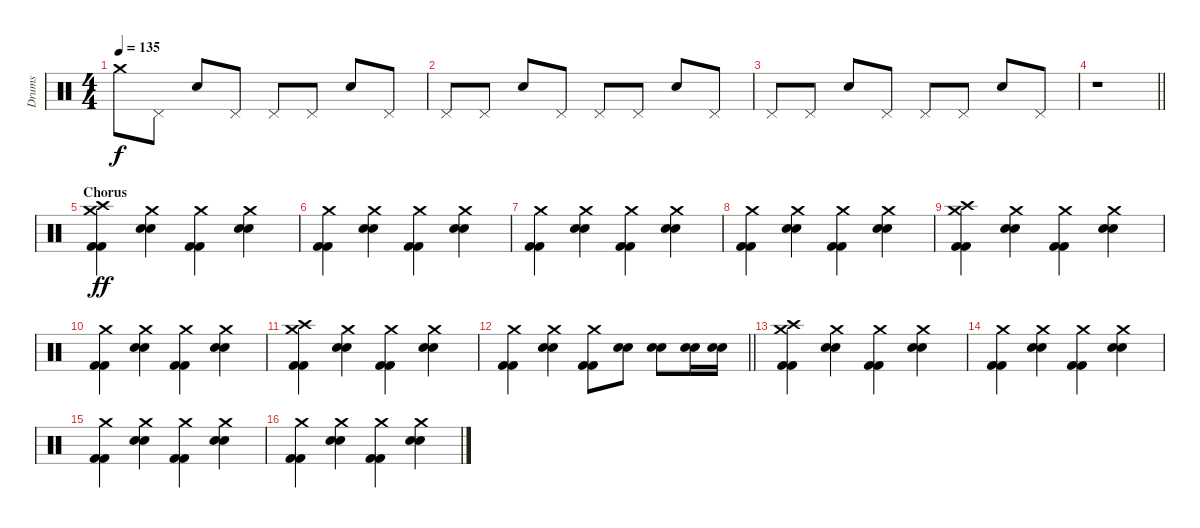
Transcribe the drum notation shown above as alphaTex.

\track ("Drums" "Drums") {instrument percussion}
\staff {score}
\articulation defaults
\ts (4 4)
\tempo 135
\clef neutral
\ks c "Crash medium (hit)".8{dy f} "Pedal Hi-Hat (hit)".8 "Hand Clap (hit)".8 "Pedal Hi-Hat (hit)".8 "Pedal Hi-Hat (hit)".8 "Pedal Hi-Hat (hit)".8 "Hand Clap (hit)".8 "Pedal Hi-Hat (hit)".8
|
"Pedal Hi-Hat (hit)".8 "Pedal Hi-Hat (hit)".8 "Hand Clap (hit)".8 "Pedal Hi-Hat (hit)".8 "Pedal Hi-Hat (hit)".8 "Pedal Hi-Hat (hit)".8 "Hand Clap (hit)".8 "Pedal Hi-Hat (hit)".8 |
"Pedal Hi-Hat (hit)".8 "Pedal Hi-Hat (hit)".8 "Hand Clap (hit)".8 "Pedal Hi-Hat (hit)".8 "Pedal Hi-Hat (hit)".8 "Pedal Hi-Hat (hit)".8 "Hand Clap (hit)".8 "Pedal Hi-Hat (hit)".8 |
\barLineRight lightlight
r.1 |
\section ("" "Chorus")
("Crash high (hit)" "Crash medium (hit)" "Kick (hit) 2" "Kick (hit) 2").4{dy ff} ("Crash medium (hit)" "Electric Snare (hit)" "Electric Snare (hit)").4 ("Crash medium (hit)" "Kick (hit) 2" "Kick (hit) 2").4 ("Crash medium (hit)" "Electric Snare (hit)" "Electric Snare (hit)").4 |
("Crash medium (hit)" "Kick (hit) 2" "Kick (hit) 2").4 ("Crash medium (hit)" "Electric Snare (hit)" "Electric Snare (hit)").4 ("Crash medium (hit)" "Kick (hit) 2" "Kick (hit) 2").4 ("Crash medium (hit)" "Electric Snare (hit)" "Electric Snare (hit)").4 |
("Crash medium (hit)" "Kick (hit) 2" "Kick (hit) 2").4 ("Crash medium (hit)" "Electric Snare (hit)" "Electric Snare (hit)").4 ("Crash medium (hit)" "Kick (hit) 2" "Kick (hit) 2").4 ("Crash medium (hit)" "Electric Snare (hit)" "Electric Snare (hit)").4 |
("Crash medium (hit)" "Kick (hit) 2" "Kick (hit) 2").4 ("Crash medium (hit)" "Electric Snare (hit)" "Electric Snare (hit)").4 ("Crash medium (hit)" "Kick (hit) 2" "Kick (hit) 2").4 ("Crash medium (hit)" "Electric Snare (hit)" "Electric Snare (hit)").4 |
("Crash high (hit)" "Crash medium (hit)" "Kick (hit) 2" "Kick (hit) 2").4 ("Crash medium (hit)" "Electric Snare (hit)" "Electric Snare (hit)").4 ("Crash medium (hit)" "Kick (hit) 2" "Kick (hit) 2").4 ("Crash medium (hit)" "Electric Snare (hit)" "Electric Snare (hit)").4 |
("Crash medium (hit)" "Kick (hit) 2" "Kick (hit) 2").4 ("Crash medium (hit)" "Electric Snare (hit)" "Electric Snare (hit)").4 ("Crash medium (hit)" "Kick (hit) 2" "Kick (hit) 2").4 ("Crash medium (hit)" "Electric Snare (hit)" "Electric Snare (hit)").4 |
("Crash high (hit)" "Crash medium (hit)" "Kick (hit) 2" "Kick (hit) 2").4 ("Crash medium (hit)" "Electric Snare (hit)" "Electric Snare (hit)").4 ("Crash medium (hit)" "Kick (hit) 2" "Kick (hit) 2").4 ("Crash medium (hit)" "Electric Snare (hit)" "Electric Snare (hit)").4 |
\barLineRight lightlight
("Crash medium (hit)" "Kick (hit) 2" "Kick (hit) 2").4 ("Crash medium (hit)" "Electric Snare (hit)" "Electric Snare (hit)").4 ("Crash medium (hit)" "Kick (hit) 2" "Kick (hit) 2").8 ("Electric Snare (hit)" "Electric Snare (hit)").8 ("Electric Snare (hit)" "Electric Snare (hit)").8 ("Electric Snare (hit)" "Electric Snare (hit)").16 ("Electric Snare (hit)" "Electric Snare (hit)").16 |
("Crash high (hit)" "Crash medium (hit)" "Kick (hit) 2" "Kick (hit) 2").4 ("Crash medium (hit)" "Electric Snare (hit)" "Electric Snare (hit)").4 ("Crash medium (hit)" "Kick (hit) 2" "Kick (hit) 2").4 ("Crash medium (hit)" "Electric Snare (hit)" "Electric Snare (hit)").4 |
("Crash medium (hit)" "Kick (hit) 2" "Kick (hit) 2").4 ("Crash medium (hit)" "Electric Snare (hit)" "Electric Snare (hit)").4 ("Crash medium (hit)" "Kick (hit) 2" "Kick (hit) 2").4 ("Crash medium (hit)" "Electric Snare (hit)" "Electric Snare (hit)").4 |
("Crash medium (hit)" "Kick (hit) 2" "Kick (hit) 2").4 ("Crash medium (hit)" "Electric Snare (hit)" "Electric Snare (hit)").4 ("Crash medium (hit)" "Kick (hit) 2" "Kick (hit) 2").4 ("Crash medium (hit)" "Electric Snare (hit)" "Electric Snare (hit)").4 |
("Crash medium (hit)" "Kick (hit) 2" "Kick (hit) 2").4 ("Crash medium (hit)" "Electric Snare (hit)" "Electric Snare (hit)").4 ("Crash medium (hit)" "Kick (hit) 2" "Kick (hit) 2").4 ("Crash medium (hit)" "Electric Snare (hit)" "Electric Snare (hit)").4
